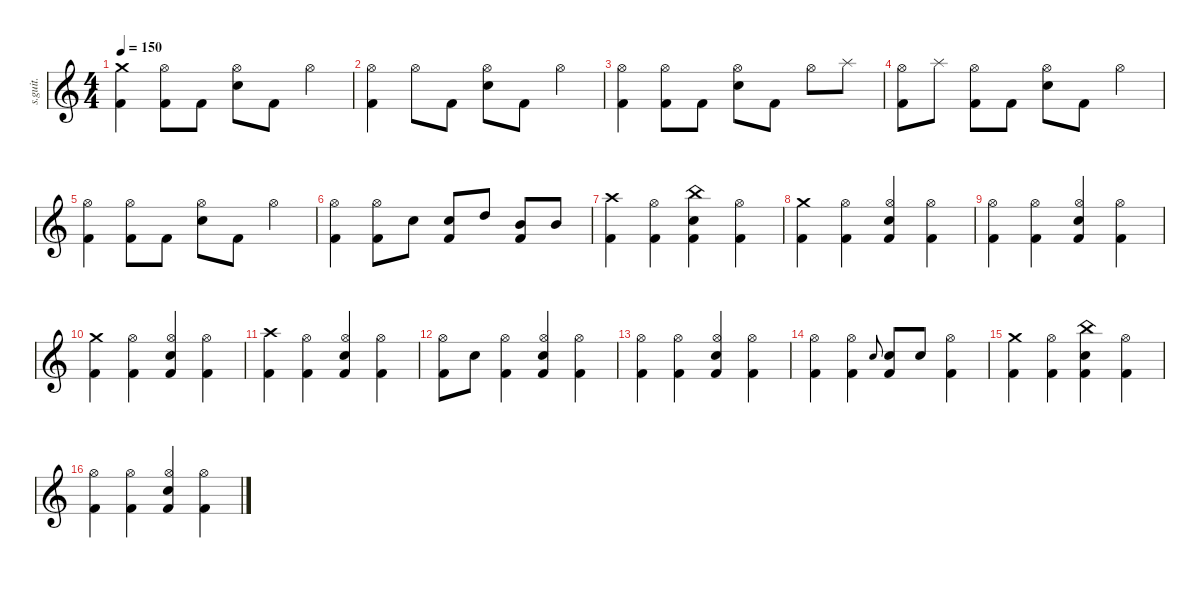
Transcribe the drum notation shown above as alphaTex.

\defaultSystemsLayout 4
\hideDynamics
\bracketExtendMode nobrackets
\track ("Christoph Schneider" "s.guit.") {instrument percussion}
\staff {score}
\articulation defaults
\ts (4 4)
\tempo 150
\clef g2
\ks c
("Kick (hit) 2" "Crash medium (hit)").4{lyrics (0 "") lyrics (1 "") lyrics (2 "") lyrics (3 "") lyrics (4 "") dy ff} ("Kick (hit) 2" "Hi-Hat (open)").8{lyrics (0 "") lyrics (1 "") lyrics (2 "") lyrics (3 "") lyrics (4 "")} "Kick (hit) 2".8{lyrics (0 "") lyrics (1 "") lyrics (2 "") lyrics (3 "") lyrics (4 "")} ("Snare (hit) 2" "Hi-Hat (open)").8{lyrics (0 "") lyrics (1 "") lyrics (2 "") lyrics (3 "") lyrics (4 "")} "Kick (hit) 2".8{lyrics (0 "") lyrics (1 "") lyrics (2 "") lyrics (3 "") lyrics (4 "")} "Hi-Hat (open)".4{lyrics (0 "") lyrics (1 "") lyrics (2 "") lyrics (3 "") lyrics (4 "")} |
("Kick (hit) 2" "Hi-Hat (open)").4{lyrics (0 "") lyrics (1 "") lyrics (2 "") lyrics (3 "") lyrics (4 "")} "Hi-Hat (open)".8{lyrics (0 "") lyrics (1 "") lyrics (2 "") lyrics (3 "") lyrics (4 "")} "Kick (hit) 2".8{lyrics (0 "") lyrics (1 "") lyrics (2 "") lyrics (3 "") lyrics (4 "")} ("Snare (hit) 2" "Hi-Hat (open)").8{lyrics (0 "") lyrics (1 "") lyrics (2 "") lyrics (3 "") lyrics (4 "")} "Kick (hit) 2".8{lyrics (0 "") lyrics (1 "") lyrics (2 "") lyrics (3 "") lyrics (4 "")} "Hi-Hat (open)".4{lyrics (0 "") lyrics (1 "") lyrics (2 "") lyrics (3 "") lyrics (4 "")} |
("Kick (hit) 2" "Hi-Hat (open)").4{lyrics (0 "") lyrics (1 "") lyrics (2 "") lyrics (3 "") lyrics (4 "")} ("Kick (hit) 2" "Hi-Hat (open)").8{lyrics (0 "") lyrics (1 "") lyrics (2 "") lyrics (3 "") lyrics (4 "")} "Kick (hit) 2".8{lyrics (0 "") lyrics (1 "") lyrics (2 "") lyrics (3 "") lyrics (4 "")} ("Snare (hit) 2" "Hi-Hat (open)").8{lyrics (0 "") lyrics (1 "") lyrics (2 "") lyrics (3 "") lyrics (4 "")} "Kick (hit) 2".8{lyrics (0 "") lyrics (1 "") lyrics (2 "") lyrics (3 "") lyrics (4 "")} "Hi-Hat (open)".8{lyrics (0 "") lyrics (1 "") lyrics (2 "") lyrics (3 "") lyrics (4 "")} "Splash (hit)".8{lyrics (0 "") lyrics (1 "") lyrics (2 "") lyrics (3 "") lyrics (4 "")} |
("Kick (hit) 2" "Hi-Hat (open)").8{lyrics (0 "") lyrics (1 "") lyrics (2 "") lyrics (3 "") lyrics (4 "")} "Splash (hit)".8{lyrics (0 "") lyrics (1 "") lyrics (2 "") lyrics (3 "") lyrics (4 "")} ("Kick (hit) 2" "Hi-Hat (open)").8{lyrics (0 "") lyrics (1 "") lyrics (2 "") lyrics (3 "") lyrics (4 "")} "Kick (hit) 2".8{lyrics (0 "") lyrics (1 "") lyrics (2 "") lyrics (3 "") lyrics (4 "")} ("Snare (hit) 2" "Hi-Hat (open)").8{lyrics (0 "") lyrics (1 "") lyrics (2 "") lyrics (3 "") lyrics (4 "")} "Kick (hit) 2".8{lyrics (0 "") lyrics (1 "") lyrics (2 "") lyrics (3 "") lyrics (4 "")} "Hi-Hat (open)".4{lyrics (0 "") lyrics (1 "") lyrics (2 "") lyrics (3 "") lyrics (4 "")} |
("Kick (hit) 2" "Hi-Hat (open)").4{lyrics (0 "") lyrics (1 "") lyrics (2 "") lyrics (3 "") lyrics (4 "")} ("Kick (hit) 2" "Hi-Hat (open)").8{lyrics (0 "") lyrics (1 "") lyrics (2 "") lyrics (3 "") lyrics (4 "")} "Kick (hit) 2".8{lyrics (0 "") lyrics (1 "") lyrics (2 "") lyrics (3 "") lyrics (4 "")} ("Snare (hit) 2" "Hi-Hat (open)").8{lyrics (0 "") lyrics (1 "") lyrics (2 "") lyrics (3 "") lyrics (4 "")} "Kick (hit) 2".8{lyrics (0 "") lyrics (1 "") lyrics (2 "") lyrics (3 "") lyrics (4 "")} "Hi-Hat (open)".4{lyrics (0 "") lyrics (1 "") lyrics (2 "") lyrics (3 "") lyrics (4 "")} |
("Kick (hit) 2" "Hi-Hat (open)").4{lyrics (0 "") lyrics (1 "") lyrics (2 "") lyrics (3 "") lyrics (4 "")} ("Kick (hit) 2" "Hi-Hat (open)").8{lyrics (0 "") lyrics (1 "") lyrics (2 "") lyrics (3 "") lyrics (4 "")} "Snare (hit) 2".8{lyrics (0 "") lyrics (1 "") lyrics (2 "") lyrics (3 "") lyrics (4 "")} ("Snare (hit) 2" "Kick (hit) 2").8{lyrics (0 "") lyrics (1 "") lyrics (2 "") lyrics (3 "") lyrics (4 "")} "High Tom (hit)".8{lyrics (0 "") lyrics (1 "") lyrics (2 "") lyrics (3 "") lyrics (4 "")} ("Kick (hit) 2" "Mid Tom (hit)").8{lyrics (0 "") lyrics (1 "") lyrics (2 "") lyrics (3 "") lyrics (4 "")} "Mid Tom (hit)".8{lyrics (0 "") lyrics (1 "") lyrics (2 "") lyrics (3 "") lyrics (4 "")} |
("Crash high (hit)" "Kick (hit) 2").4{lyrics (0 "") lyrics (1 "") lyrics (2 "") lyrics (3 "") lyrics (4 "")} ("Hi-Hat (open)" "Kick (hit) 2").4{lyrics (0 "") lyrics (1 "") lyrics (2 "") lyrics (3 "") lyrics (4 "")} ("China (hit)" "Snare (hit) 2" "Kick (hit) 2").4{lyrics (0 "") lyrics (1 "") lyrics (2 "") lyrics (3 "") lyrics (4 "")} ("Hi-Hat (open)" "Kick (hit) 2").4{lyrics (0 "") lyrics (1 "") lyrics (2 "") lyrics (3 "") lyrics (4 "")} |
("Crash medium (hit)" "Kick (hit) 2").4{lyrics (0 "") lyrics (1 "") lyrics (2 "") lyrics (3 "") lyrics (4 "")} ("Hi-Hat (open)" "Kick (hit) 2").4{lyrics (0 "") lyrics (1 "") lyrics (2 "") lyrics (3 "") lyrics (4 "")} ("Snare (hit) 2" "Hi-Hat (open)" "Kick (hit) 2").4{lyrics (0 "") lyrics (1 "") lyrics (2 "") lyrics (3 "") lyrics (4 "")} ("Hi-Hat (open)" "Kick (hit) 2").4{lyrics (0 "") lyrics (1 "") lyrics (2 "") lyrics (3 "") lyrics (4 "")} |
("Hi-Hat (open)" "Kick (hit) 2").4{lyrics (0 "") lyrics (1 "") lyrics (2 "") lyrics (3 "") lyrics (4 "")} ("Hi-Hat (open)" "Kick (hit) 2").4{lyrics (0 "") lyrics (1 "") lyrics (2 "") lyrics (3 "") lyrics (4 "")} ("Snare (hit) 2" "Hi-Hat (open)" "Kick (hit) 2").4{lyrics (0 "") lyrics (1 "") lyrics (2 "") lyrics (3 "") lyrics (4 "")} ("Hi-Hat (open)" "Kick (hit) 2").4{lyrics (0 "") lyrics (1 "") lyrics (2 "") lyrics (3 "") lyrics (4 "")} |
("Crash medium (hit)" "Kick (hit) 2").4{lyrics (0 "") lyrics (1 "") lyrics (2 "") lyrics (3 "") lyrics (4 "")} ("Hi-Hat (open)" "Kick (hit) 2").4{lyrics (0 "") lyrics (1 "") lyrics (2 "") lyrics (3 "") lyrics (4 "")} ("Snare (hit) 2" "Hi-Hat (open)" "Kick (hit) 2").4{lyrics (0 "") lyrics (1 "") lyrics (2 "") lyrics (3 "") lyrics (4 "")} ("Hi-Hat (open)" "Kick (hit) 2").4{lyrics (0 "") lyrics (1 "") lyrics (2 "") lyrics (3 "") lyrics (4 "")} |
("Crash high (hit)" "Kick (hit) 2").4{lyrics (0 "") lyrics (1 "") lyrics (2 "") lyrics (3 "") lyrics (4 "")} ("Hi-Hat (open)" "Kick (hit) 2").4{lyrics (0 "") lyrics (1 "") lyrics (2 "") lyrics (3 "") lyrics (4 "")} ("Snare (hit) 2" "Hi-Hat (open)" "Kick (hit) 2").4{lyrics (0 "") lyrics (1 "") lyrics (2 "") lyrics (3 "") lyrics (4 "")} ("Hi-Hat (open)" "Kick (hit) 2").4{lyrics (0 "") lyrics (1 "") lyrics (2 "") lyrics (3 "") lyrics (4 "")} |
("Hi-Hat (open)" "Kick (hit) 2").8{lyrics (0 "") lyrics (1 "") lyrics (2 "") lyrics (3 "") lyrics (4 "")} "Snare (hit) 2".8{lyrics (0 "") lyrics (1 "") lyrics (2 "") lyrics (3 "") lyrics (4 "")} ("Hi-Hat (open)" "Kick (hit) 2").4{lyrics (0 "") lyrics (1 "") lyrics (2 "") lyrics (3 "") lyrics (4 "")} ("Snare (hit) 2" "Hi-Hat (open)" "Kick (hit) 2").4{lyrics (0 "") lyrics (1 "") lyrics (2 "") lyrics (3 "") lyrics (4 "")} ("Hi-Hat (open)" "Kick (hit) 2").4{lyrics (0 "") lyrics (1 "") lyrics (2 "") lyrics (3 "") lyrics (4 "")} |
("Hi-Hat (open)" "Kick (hit) 2").4{lyrics (0 "") lyrics (1 "") lyrics (2 "") lyrics (3 "") lyrics (4 "")} ("Hi-Hat (open)" "Kick (hit) 2").4{lyrics (0 "") lyrics (1 "") lyrics (2 "") lyrics (3 "") lyrics (4 "")} ("Snare (hit) 2" "Hi-Hat (open)" "Kick (hit) 2").4{lyrics (0 "") lyrics (1 "") lyrics (2 "") lyrics (3 "") lyrics (4 "")} ("Hi-Hat (open)" "Kick (hit) 2").4{lyrics (0 "") lyrics (1 "") lyrics (2 "") lyrics (3 "") lyrics (4 "")} |
("Hi-Hat (open)" "Kick (hit) 2").4{lyrics (0 "") lyrics (1 "") lyrics (2 "") lyrics (3 "") lyrics (4 "")} ("Hi-Hat (open)" "Kick (hit) 2").4{lyrics (0 "") lyrics (1 "") lyrics (2 "") lyrics (3 "") lyrics (4 "")} "Snare (hit) 2".8{lyrics (0 "") lyrics (1 "") lyrics (2 "") lyrics (3 "") lyrics (4 "") gr onbeat} ("Snare (hit) 2" "Kick (hit) 2").8{lyrics (0 "") lyrics (1 "") lyrics (2 "") lyrics (3 "") lyrics (4 "")} "Snare (hit) 2".8{lyrics (0 "") lyrics (1 "") lyrics (2 "") lyrics (3 "") lyrics (4 "")} ("Hi-Hat (open)" "Kick (hit) 2").4{lyrics (0 "") lyrics (1 "") lyrics (2 "") lyrics (3 "") lyrics (4 "")} |
("Crash medium (hit)" "Kick (hit) 2").4{lyrics (0 "") lyrics (1 "") lyrics (2 "") lyrics (3 "") lyrics (4 "")} ("Hi-Hat (open)" "Kick (hit) 2").4{lyrics (0 "") lyrics (1 "") lyrics (2 "") lyrics (3 "") lyrics (4 "")} ("Snare (hit) 2" "Kick (hit) 2" "China (hit)").4{lyrics (0 "") lyrics (1 "") lyrics (2 "") lyrics (3 "") lyrics (4 "")} ("Hi-Hat (open)" "Kick (hit) 2").4{lyrics (0 "") lyrics (1 "") lyrics (2 "") lyrics (3 "") lyrics (4 "")} |
("Hi-Hat (open)" "Kick (hit) 2").4{lyrics (0 "") lyrics (1 "") lyrics (2 "") lyrics (3 "") lyrics (4 "")} ("Hi-Hat (open)" "Kick (hit) 2").4{lyrics (0 "") lyrics (1 "") lyrics (2 "") lyrics (3 "") lyrics (4 "")} ("Hi-Hat (open)" "Snare (hit) 2" "Kick (hit) 2").4{lyrics (0 "") lyrics (1 "") lyrics (2 "") lyrics (3 "") lyrics (4 "")} ("Hi-Hat (open)" "Kick (hit) 2").4{lyrics (0 "") lyrics (1 "") lyrics (2 "") lyrics (3 "") lyrics (4 "")}
